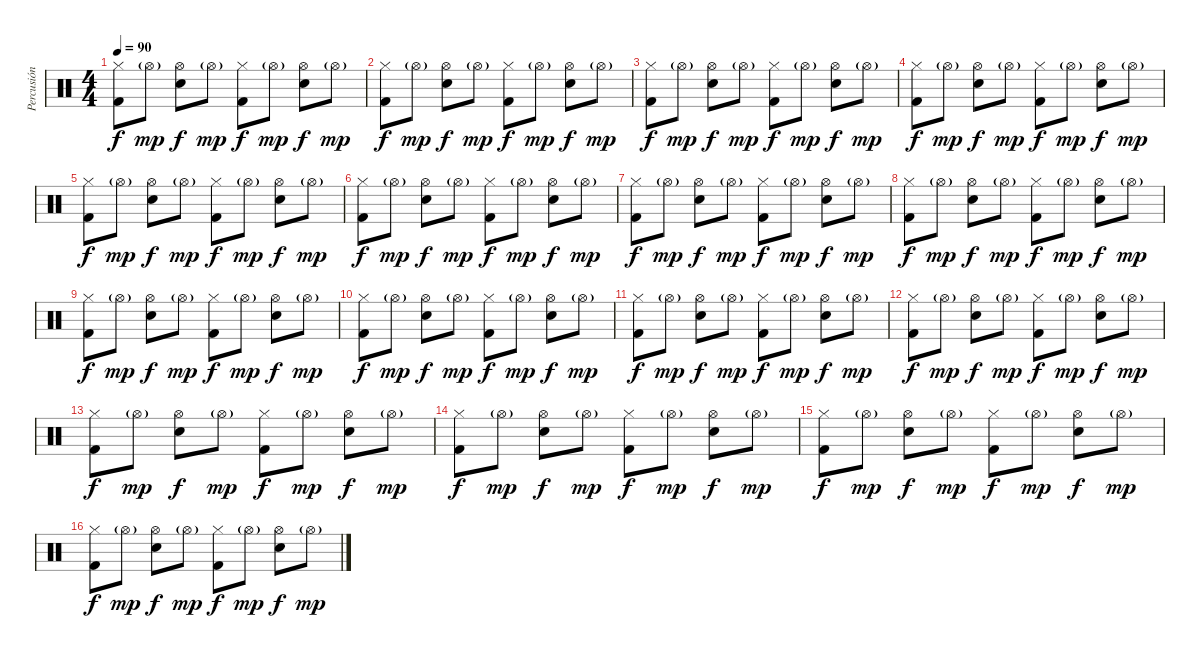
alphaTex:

\track ("Percusión" "Percusión") {instrument percussion}
\staff {score}
\articulation defaults
\ts (4 4)
\tempo 90
\clef neutral
\ks c
("Hi-Hat (closed)" "Kick (hit) 2").8{dy f} "Hi-Hat (open)"{g}.8{dy mp} ("Hi-Hat (open)" "Snare (hit) 2").8{dy f} "Hi-Hat (open)"{g}.8{dy mp} ("Hi-Hat (closed)" "Kick (hit) 2").8{dy f} "Hi-Hat (open)"{g}.8{dy mp} ("Hi-Hat (open)" "Snare (hit) 2").8{dy f} "Hi-Hat (open)"{g}.8{dy mp} |
("Hi-Hat (closed)" "Kick (hit) 2").8{dy f} "Hi-Hat (open)"{g}.8{dy mp} ("Hi-Hat (open)" "Snare (hit) 2").8{dy f} "Hi-Hat (open)"{g}.8{dy mp} ("Hi-Hat (closed)" "Kick (hit) 2").8{dy f} "Hi-Hat (open)"{g}.8{dy mp} ("Hi-Hat (open)" "Snare (hit) 2").8{dy f} "Hi-Hat (open)"{g}.8{dy mp} |
("Hi-Hat (closed)" "Kick (hit) 2").8{dy f} "Hi-Hat (open)"{g}.8{dy mp} ("Hi-Hat (open)" "Snare (hit) 2").8{dy f} "Hi-Hat (open)"{g}.8{dy mp} ("Hi-Hat (closed)" "Kick (hit) 2").8{dy f} "Hi-Hat (open)"{g}.8{dy mp} ("Hi-Hat (open)" "Snare (hit) 2").8{dy f} "Hi-Hat (open)"{g}.8{dy mp} |
("Hi-Hat (closed)" "Kick (hit) 2").8{dy f} "Hi-Hat (open)"{g}.8{dy mp} ("Hi-Hat (open)" "Snare (hit) 2").8{dy f} "Hi-Hat (open)"{g}.8{dy mp} ("Hi-Hat (closed)" "Kick (hit) 2").8{dy f} "Hi-Hat (open)"{g}.8{dy mp} ("Hi-Hat (open)" "Snare (hit) 2").8{dy f} "Hi-Hat (open)"{g}.8{dy mp} |
("Hi-Hat (closed)" "Kick (hit) 2").8{dy f} "Hi-Hat (open)"{g}.8{dy mp} ("Hi-Hat (open)" "Snare (hit) 2").8{dy f} "Hi-Hat (open)"{g}.8{dy mp} ("Hi-Hat (closed)" "Kick (hit) 2").8{dy f} "Hi-Hat (open)"{g}.8{dy mp} ("Hi-Hat (open)" "Snare (hit) 2").8{dy f} "Hi-Hat (open)"{g}.8{dy mp} |
("Hi-Hat (closed)" "Kick (hit) 2").8{dy f} "Hi-Hat (open)"{g}.8{dy mp} ("Hi-Hat (open)" "Snare (hit) 2").8{dy f} "Hi-Hat (open)"{g}.8{dy mp} ("Hi-Hat (closed)" "Kick (hit) 2").8{dy f} "Hi-Hat (open)"{g}.8{dy mp} ("Hi-Hat (open)" "Snare (hit) 2").8{dy f} "Hi-Hat (open)"{g}.8{dy mp} |
("Hi-Hat (closed)" "Kick (hit) 2").8{dy f} "Hi-Hat (open)"{g}.8{dy mp} ("Hi-Hat (open)" "Snare (hit) 2").8{dy f} "Hi-Hat (open)"{g}.8{dy mp} ("Hi-Hat (closed)" "Kick (hit) 2").8{dy f} "Hi-Hat (open)"{g}.8{dy mp} ("Hi-Hat (open)" "Snare (hit) 2").8{dy f} "Hi-Hat (open)"{g}.8{dy mp} |
("Hi-Hat (closed)" "Kick (hit) 2").8{dy f} "Hi-Hat (open)"{g}.8{dy mp} ("Hi-Hat (open)" "Snare (hit) 2").8{dy f} "Hi-Hat (open)"{g}.8{dy mp} ("Hi-Hat (closed)" "Kick (hit) 2").8{dy f} "Hi-Hat (open)"{g}.8{dy mp} ("Hi-Hat (open)" "Snare (hit) 2").8{dy f} "Hi-Hat (open)"{g}.8{dy mp} |
("Hi-Hat (closed)" "Kick (hit) 2").8{dy f} "Hi-Hat (open)"{g}.8{dy mp} ("Hi-Hat (open)" "Snare (hit) 2").8{dy f} "Hi-Hat (open)"{g}.8{dy mp} ("Hi-Hat (closed)" "Kick (hit) 2").8{dy f} "Hi-Hat (open)"{g}.8{dy mp} ("Hi-Hat (open)" "Snare (hit) 2").8{dy f} "Hi-Hat (open)"{g}.8{dy mp} |
("Hi-Hat (closed)" "Kick (hit) 2").8{dy f} "Hi-Hat (open)"{g}.8{dy mp} ("Hi-Hat (open)" "Snare (hit) 2").8{dy f} "Hi-Hat (open)"{g}.8{dy mp} ("Hi-Hat (closed)" "Kick (hit) 2").8{dy f} "Hi-Hat (open)"{g}.8{dy mp} ("Hi-Hat (open)" "Snare (hit) 2").8{dy f} "Hi-Hat (open)"{g}.8{dy mp} |
("Hi-Hat (closed)" "Kick (hit) 2").8{dy f} "Hi-Hat (open)"{g}.8{dy mp} ("Hi-Hat (open)" "Snare (hit) 2").8{dy f} "Hi-Hat (open)"{g}.8{dy mp} ("Hi-Hat (closed)" "Kick (hit) 2").8{dy f} "Hi-Hat (open)"{g}.8{dy mp} ("Hi-Hat (open)" "Snare (hit) 2").8{dy f} "Hi-Hat (open)"{g}.8{dy mp} |
("Hi-Hat (closed)" "Kick (hit) 2").8{dy f} "Hi-Hat (open)"{g}.8{dy mp} ("Hi-Hat (open)" "Snare (hit) 2").8{dy f} "Hi-Hat (open)"{g}.8{dy mp} ("Hi-Hat (closed)" "Kick (hit) 2").8{dy f} "Hi-Hat (open)"{g}.8{dy mp} ("Hi-Hat (open)" "Snare (hit) 2").8{dy f} "Hi-Hat (open)"{g}.8{dy mp} |
("Hi-Hat (closed)" "Kick (hit) 2").8{dy f} "Hi-Hat (open)"{g}.8{dy mp} ("Hi-Hat (open)" "Snare (hit) 2").8{dy f} "Hi-Hat (open)"{g}.8{dy mp} ("Hi-Hat (closed)" "Kick (hit) 2").8{dy f} "Hi-Hat (open)"{g}.8{dy mp} ("Hi-Hat (open)" "Snare (hit) 2").8{dy f} "Hi-Hat (open)"{g}.8{dy mp} |
("Hi-Hat (closed)" "Kick (hit) 2").8{dy f} "Hi-Hat (open)"{g}.8{dy mp} ("Hi-Hat (open)" "Snare (hit) 2").8{dy f} "Hi-Hat (open)"{g}.8{dy mp} ("Hi-Hat (closed)" "Kick (hit) 2").8{dy f} "Hi-Hat (open)"{g}.8{dy mp} ("Hi-Hat (open)" "Snare (hit) 2").8{dy f} "Hi-Hat (open)"{g}.8{dy mp} |
("Hi-Hat (closed)" "Kick (hit) 2").8{dy f} "Hi-Hat (open)"{g}.8{dy mp} ("Hi-Hat (open)" "Snare (hit) 2").8{dy f} "Hi-Hat (open)"{g}.8{dy mp} ("Hi-Hat (closed)" "Kick (hit) 2").8{dy f} "Hi-Hat (open)"{g}.8{dy mp} ("Hi-Hat (open)" "Snare (hit) 2").8{dy f} "Hi-Hat (open)"{g}.8{dy mp} |
("Hi-Hat (closed)" "Kick (hit) 2").8{dy f} "Hi-Hat (open)"{g}.8{dy mp} ("Hi-Hat (open)" "Snare (hit) 2").8{dy f} "Hi-Hat (open)"{g}.8{dy mp} ("Hi-Hat (closed)" "Kick (hit) 2").8{dy f} "Hi-Hat (open)"{g}.8{dy mp} ("Hi-Hat (open)" "Snare (hit) 2").8{dy f} "Hi-Hat (open)"{g}.8{dy mp}
